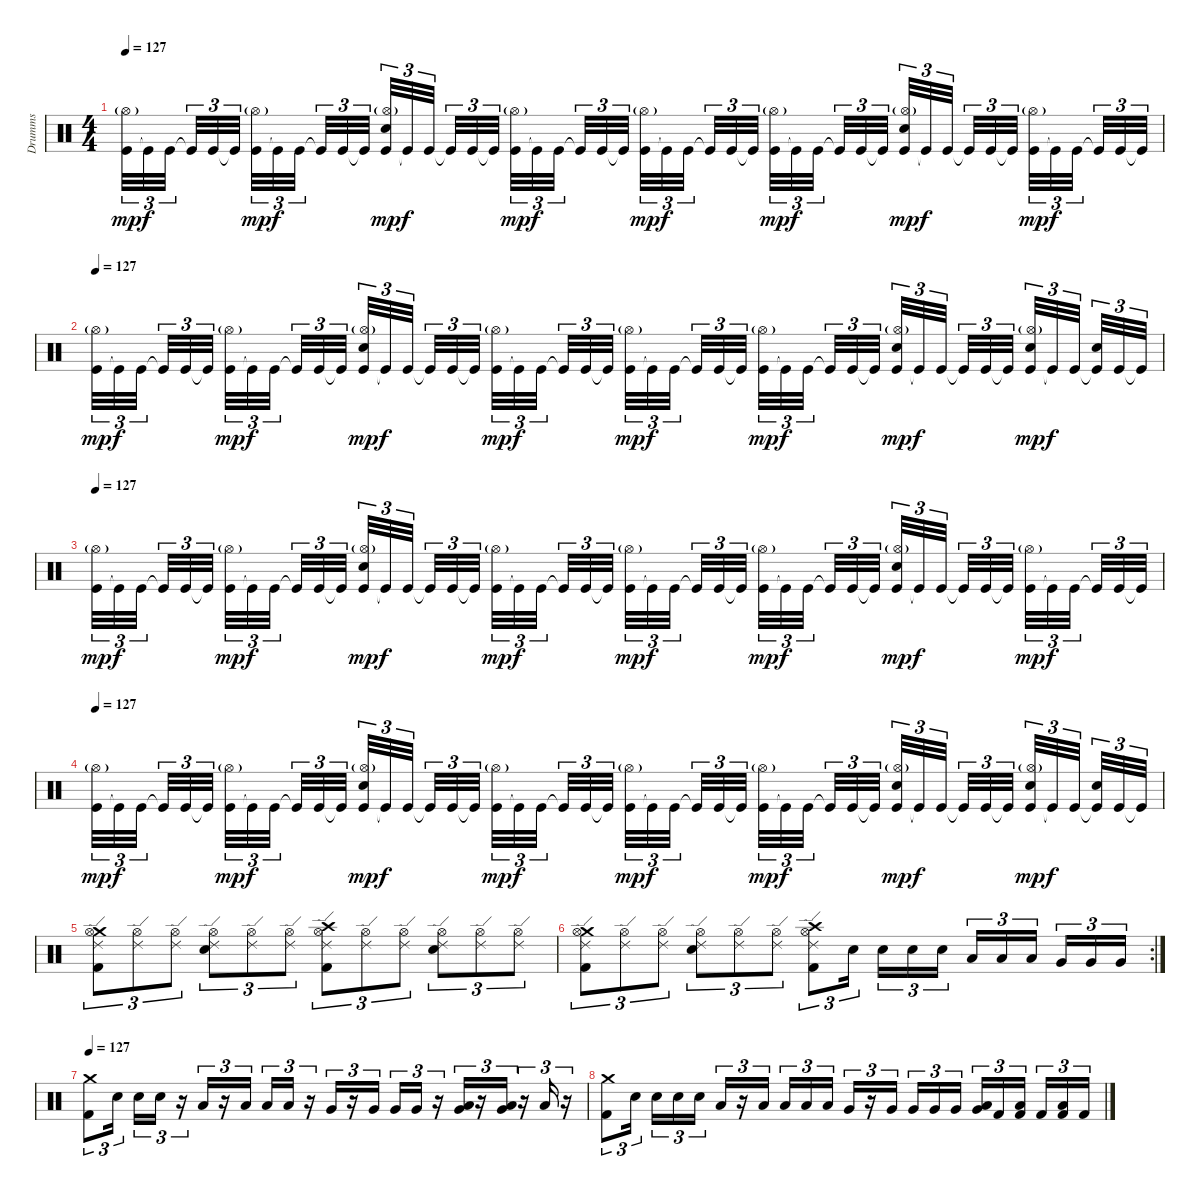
\track ("Drumms" "Drumms") {instrument percussion}
\staff {score}
\articulation defaults
\ts (4 4)
\tempo 127
\clef neutral
\ks c
("Kick (hit)" "Hi-Hat (open)"{g}).32{tu (3 2) dy mp} "Kick (hit)"{t}.32{tu (3 2) dy f} "Kick (hit)".32{tu (3 2)} "Kick (hit)"{t}.32{tu (3 2)} "Kick (hit)".32{tu (3 2)} "Kick (hit)"{t}.32{tu (3 2)} ("Kick (hit)" "Hi-Hat (open)"{g}).32{tu (3 2) dy mp} "Kick (hit)"{t}.32{tu (3 2) dy f} "Kick (hit)".32{tu (3 2)} "Kick (hit)"{t}.32{tu (3 2)} "Kick (hit)".32{tu (3 2)} "Kick (hit)"{t}.32{tu (3 2)} ("Kick (hit)" "Snare (hit) 2" "Hi-Hat (open)"{g}).32{tu (3 2) dy mp} "Kick (hit)"{t}.32{tu (3 2) dy f} "Kick (hit)".32{tu (3 2)} "Kick (hit)"{t}.32{tu (3 2)} "Kick (hit)".32{tu (3 2)} "Kick (hit)"{t}.32{tu (3 2)} ("Kick (hit)" "Hi-Hat (open)"{g}).32{tu (3 2) dy mp} "Kick (hit)"{t}.32{tu (3 2) dy f} "Kick (hit)".32{tu (3 2)} "Kick (hit)"{t}.32{tu (3 2)} "Kick (hit)".32{tu (3 2)} "Kick (hit)"{t}.32{tu (3 2)} ("Kick (hit)" "Hi-Hat (open)"{g}).32{tu (3 2) dy mp} "Kick (hit)"{t}.32{tu (3 2) dy f} "Kick (hit)".32{tu (3 2)} "Kick (hit)"{t}.32{tu (3 2)} "Kick (hit)".32{tu (3 2)} "Kick (hit)"{t}.32{tu (3 2)} ("Kick (hit)" "Hi-Hat (open)"{g}).32{tu (3 2) dy mp} "Kick (hit)"{t}.32{tu (3 2) dy f} "Kick (hit)".32{tu (3 2)} "Kick (hit)"{t}.32{tu (3 2)} "Kick (hit)".32{tu (3 2)} "Kick (hit)"{t}.32{tu (3 2)} ("Kick (hit)" "Hi-Hat (open)"{g} "Snare (hit) 2").32{tu (3 2) dy mp} "Kick (hit)"{t}.32{tu (3 2) dy f} "Kick (hit)".32{tu (3 2)} "Kick (hit)"{t}.32{tu (3 2)} "Kick (hit)".32{tu (3 2)} "Kick (hit)"{t}.32{tu (3 2)} ("Kick (hit)" "Hi-Hat (open)"{g}).32{tu (3 2) dy mp} "Kick (hit)"{t}.32{tu (3 2) dy f} "Kick (hit)".32{tu (3 2)} "Kick (hit)"{t}.32{tu (3 2)} "Kick (hit)".32{tu (3 2)} "Kick (hit)"{t}.32{tu (3 2)} |
\tempo 127
("Kick (hit)" "Hi-Hat (open)"{g}).32{tu (3 2) dy mp} "Kick (hit)"{t}.32{tu (3 2) dy f} "Kick (hit)".32{tu (3 2)} "Kick (hit)"{t}.32{tu (3 2)} "Kick (hit)".32{tu (3 2)} "Kick (hit)"{t}.32{tu (3 2)} ("Kick (hit)" "Hi-Hat (open)"{g}).32{tu (3 2) dy mp} "Kick (hit)"{t}.32{tu (3 2) dy f} "Kick (hit)".32{tu (3 2)} "Kick (hit)"{t}.32{tu (3 2)} "Kick (hit)".32{tu (3 2)} "Kick (hit)"{t}.32{tu (3 2)} ("Kick (hit)" "Snare (hit) 2" "Hi-Hat (open)"{g}).32{tu (3 2) dy mp} "Kick (hit)"{t}.32{tu (3 2) dy f} "Kick (hit)".32{tu (3 2)} "Kick (hit)"{t}.32{tu (3 2)} "Kick (hit)".32{tu (3 2)} "Kick (hit)"{t}.32{tu (3 2)} ("Kick (hit)" "Hi-Hat (open)"{g}).32{tu (3 2) dy mp} "Kick (hit)"{t}.32{tu (3 2) dy f} "Kick (hit)".32{tu (3 2)} "Kick (hit)"{t}.32{tu (3 2)} "Kick (hit)".32{tu (3 2)} "Kick (hit)"{t}.32{tu (3 2)} ("Kick (hit)" "Hi-Hat (open)"{g}).32{tu (3 2) dy mp} "Kick (hit)"{t}.32{tu (3 2) dy f} "Kick (hit)".32{tu (3 2)} "Kick (hit)"{t}.32{tu (3 2)} "Kick (hit)".32{tu (3 2)} "Kick (hit)"{t}.32{tu (3 2)} ("Kick (hit)" "Hi-Hat (open)"{g}).32{tu (3 2) dy mp} "Kick (hit)"{t}.32{tu (3 2) dy f} "Kick (hit)".32{tu (3 2)} "Kick (hit)"{t}.32{tu (3 2)} "Kick (hit)".32{tu (3 2)} "Kick (hit)"{t}.32{tu (3 2)} ("Kick (hit)" "Hi-Hat (open)"{g} "Snare (hit) 2").32{tu (3 2) dy mp} "Kick (hit)"{t}.32{tu (3 2) dy f} "Kick (hit)".32{tu (3 2)} "Kick (hit)"{t}.32{tu (3 2)} "Kick (hit)".32{tu (3 2)} "Kick (hit)"{t}.32{tu (3 2)} ("Kick (hit)" "Hi-Hat (open)"{g} "Snare (hit) 2").32{tu (3 2) dy mp} "Kick (hit)"{t}.32{tu (3 2) dy f} "Kick (hit)".32{tu (3 2)} ("Kick (hit)"{t} "Snare (hit) 2").32{tu (3 2)} "Kick (hit)".32{tu (3 2)} "Kick (hit)"{t}.32{tu (3 2)} |
\tempo 127
("Kick (hit)" "Hi-Hat (open)"{g}).32{tu (3 2) dy mp} "Kick (hit)"{t}.32{tu (3 2) dy f} "Kick (hit)".32{tu (3 2)} "Kick (hit)"{t}.32{tu (3 2)} "Kick (hit)".32{tu (3 2)} "Kick (hit)"{t}.32{tu (3 2)} ("Kick (hit)" "Hi-Hat (open)"{g}).32{tu (3 2) dy mp} "Kick (hit)"{t}.32{tu (3 2) dy f} "Kick (hit)".32{tu (3 2)} "Kick (hit)"{t}.32{tu (3 2)} "Kick (hit)".32{tu (3 2)} "Kick (hit)"{t}.32{tu (3 2)} ("Kick (hit)" "Snare (hit) 2" "Hi-Hat (open)"{g}).32{tu (3 2) dy mp} "Kick (hit)"{t}.32{tu (3 2) dy f} "Kick (hit)".32{tu (3 2)} "Kick (hit)"{t}.32{tu (3 2)} "Kick (hit)".32{tu (3 2)} "Kick (hit)"{t}.32{tu (3 2)} ("Kick (hit)" "Hi-Hat (open)"{g}).32{tu (3 2) dy mp} "Kick (hit)"{t}.32{tu (3 2) dy f} "Kick (hit)".32{tu (3 2)} "Kick (hit)"{t}.32{tu (3 2)} "Kick (hit)".32{tu (3 2)} "Kick (hit)"{t}.32{tu (3 2)} ("Kick (hit)" "Hi-Hat (open)"{g}).32{tu (3 2) dy mp} "Kick (hit)"{t}.32{tu (3 2) dy f} "Kick (hit)".32{tu (3 2)} "Kick (hit)"{t}.32{tu (3 2)} "Kick (hit)".32{tu (3 2)} "Kick (hit)"{t}.32{tu (3 2)} ("Kick (hit)" "Hi-Hat (open)"{g}).32{tu (3 2) dy mp} "Kick (hit)"{t}.32{tu (3 2) dy f} "Kick (hit)".32{tu (3 2)} "Kick (hit)"{t}.32{tu (3 2)} "Kick (hit)".32{tu (3 2)} "Kick (hit)"{t}.32{tu (3 2)} ("Kick (hit)" "Hi-Hat (open)"{g} "Snare (hit) 2").32{tu (3 2) dy mp} "Kick (hit)"{t}.32{tu (3 2) dy f} "Kick (hit)".32{tu (3 2)} "Kick (hit)"{t}.32{tu (3 2)} "Kick (hit)".32{tu (3 2)} "Kick (hit)"{t}.32{tu (3 2)} ("Kick (hit)" "Hi-Hat (open)"{g}).32{tu (3 2) dy mp} "Kick (hit)"{t}.32{tu (3 2) dy f} "Kick (hit)".32{tu (3 2)} "Kick (hit)"{t}.32{tu (3 2)} "Kick (hit)".32{tu (3 2)} "Kick (hit)"{t}.32{tu (3 2)} |
\tempo 127
("Kick (hit)" "Hi-Hat (open)"{g}).32{tu (3 2) dy mp} "Kick (hit)"{t}.32{tu (3 2) dy f} "Kick (hit)".32{tu (3 2)} "Kick (hit)"{t}.32{tu (3 2)} "Kick (hit)".32{tu (3 2)} "Kick (hit)"{t}.32{tu (3 2)} ("Kick (hit)" "Hi-Hat (open)"{g}).32{tu (3 2) dy mp} "Kick (hit)"{t}.32{tu (3 2) dy f} "Kick (hit)".32{tu (3 2)} "Kick (hit)"{t}.32{tu (3 2)} "Kick (hit)".32{tu (3 2)} "Kick (hit)"{t}.32{tu (3 2)} ("Kick (hit)" "Snare (hit) 2" "Hi-Hat (open)"{g}).32{tu (3 2) dy mp} "Kick (hit)"{t}.32{tu (3 2) dy f} "Kick (hit)".32{tu (3 2)} "Kick (hit)"{t}.32{tu (3 2)} "Kick (hit)".32{tu (3 2)} "Kick (hit)"{t}.32{tu (3 2)} ("Kick (hit)" "Hi-Hat (open)"{g}).32{tu (3 2) dy mp} "Kick (hit)"{t}.32{tu (3 2) dy f} "Kick (hit)".32{tu (3 2)} "Kick (hit)"{t}.32{tu (3 2)} "Kick (hit)".32{tu (3 2)} "Kick (hit)"{t}.32{tu (3 2)} ("Kick (hit)" "Hi-Hat (open)"{g}).32{tu (3 2) dy mp} "Kick (hit)"{t}.32{tu (3 2) dy f} "Kick (hit)".32{tu (3 2)} "Kick (hit)"{t}.32{tu (3 2)} "Kick (hit)".32{tu (3 2)} "Kick (hit)"{t}.32{tu (3 2)} ("Kick (hit)" "Hi-Hat (open)"{g}).32{tu (3 2) dy mp} "Kick (hit)"{t}.32{tu (3 2) dy f} "Kick (hit)".32{tu (3 2)} "Kick (hit)"{t}.32{tu (3 2)} "Kick (hit)".32{tu (3 2)} "Kick (hit)"{t}.32{tu (3 2)} ("Kick (hit)" "Hi-Hat (open)"{g} "Snare (hit) 2").32{tu (3 2) dy mp} "Kick (hit)"{t}.32{tu (3 2) dy f} "Kick (hit)".32{tu (3 2)} "Kick (hit)"{t}.32{tu (3 2)} "Kick (hit)".32{tu (3 2)} "Kick (hit)"{t}.32{tu (3 2)} ("Kick (hit)" "Hi-Hat (open)"{g} "Snare (hit) 2").32{tu (3 2) dy mp} "Kick (hit)"{t}.32{tu (3 2) dy f} "Kick (hit)".32{tu (3 2)} ("Kick (hit)"{t} "Snare (hit) 2").32{tu (3 2)} "Kick (hit)".32{tu (3 2)} "Kick (hit)"{t}.32{tu (3 2)} |
("Kick (hit) 2" "Ride (edge) 2" "Crash medium (hit)" "Hi-Hat (open)").8{tu (3 2)} ("Ride (edge) 2" "Hi-Hat (open)").8{tu (3 2)} ("Ride (edge) 2" "Hi-Hat (open)").8{tu (3 2)} ("Snare (hit) 2" "Ride (edge) 2" "Hi-Hat (open)").8{tu (3 2)} ("Ride (edge) 2" "Hi-Hat (open)").8{tu (3 2)} ("Ride (edge) 2" "Hi-Hat (open)").8{tu (3 2)} ("Kick (hit) 2" "Ride (edge) 2" "Crash high (hit)" "Hi-Hat (open)").8{tu (3 2)} ("Ride (edge) 2" "Hi-Hat (open)").8{tu (3 2)} ("Ride (edge) 2" "Hi-Hat (open)").8{tu (3 2)} ("Snare (hit) 2" "Ride (edge) 2" "Hi-Hat (open)").8{tu (3 2)} ("Ride (edge) 2" "Hi-Hat (open)").8{tu (3 2)} ("Ride (edge) 2" "Hi-Hat (open)").8{tu (3 2)} |
\rc 2
("Kick (hit) 2" "Ride (edge) 2" "Crash medium (hit)" "Hi-Hat (open)").8{tu (3 2)} ("Ride (edge) 2" "Hi-Hat (open)").8{tu (3 2)} ("Ride (edge) 2" "Hi-Hat (open)").8{tu (3 2)} ("Snare (hit) 2" "Ride (edge) 2" "Hi-Hat (open)").8{tu (3 2)} ("Ride (edge) 2" "Hi-Hat (open)").8{tu (3 2)} ("Ride (edge) 2" "Hi-Hat (open)").8{tu (3 2)} ("Kick (hit) 2" "Ride (edge) 2" "Crash high (hit)" "Hi-Hat (open)").8{tu (3 2)} "Snare (hit) 2".16{tu (3 2)} "Snare (hit) 2".16{tu (3 2)} "Snare (hit) 2".16{tu (3 2)} "Snare (hit) 2".16{tu (3 2)} "Low Tom (hit)".16{tu (3 2)} "Low Tom (hit)".16{tu (3 2)} "Low Tom (hit)".16{tu (3 2)} "Very Low Tom (hit)".16{tu (3 2)} "Very Low Tom (hit)".16{tu (3 2)} "Very Low Tom (hit)".16{tu (3 2)} |
\tempo 127
("Kick (hit) 2" "Crash medium (hit)").8{tu (3 2)} "Snare (hit) 2".16{tu (3 2)} "Snare (hit) 2".16{tu (3 2)} "Snare (hit) 2".16{tu (3 2)} r.16{tu (3 2)} "Low Tom (hit)".16{tu (3 2)} r.16{tu (3 2)} "Low Tom (hit)".16{tu (3 2)} "Low Tom (hit)".16{tu (3 2)} "Low Tom (hit)".16{tu (3 2)} r.16{tu (3 2)} "Very Low Tom (hit)".16{tu (3 2)} r.16{tu (3 2)} "Very Low Tom (hit)".16{tu (3 2)} "Very Low Tom (hit)".16{tu (3 2)} "Very Low Tom (hit)".16{tu (3 2)} r.16{tu (3 2)} ("Low Floor Tom (hit)" "Very Low Tom (hit)").16{tu (3 2)} r.16{tu (3 2)} ("Low Floor Tom (hit)" "Very Low Tom (hit)").16{tu (3 2)} r.16{tu (3 2)} "Low Floor Tom (hit)".16{tu (3 2)} r.16{tu (3 2)} |
("Kick (hit) 2" "Crash medium (hit)").8{tu (3 2)} "Snare (hit) 2".16{tu (3 2)} "Snare (hit) 2".16{tu (3 2)} "Snare (hit) 2".16{tu (3 2)} "Snare (hit) 2".16{tu (3 2)} "Low Tom (hit)".16{tu (3 2)} r.16{tu (3 2)} "Low Tom (hit)".16{tu (3 2)} "Low Tom (hit)".16{tu (3 2)} "Low Tom (hit)".16{tu (3 2)} "Low Tom (hit)".16{tu (3 2)} "Very Low Tom (hit)".16{tu (3 2)} r.16{tu (3 2)} "Very Low Tom (hit)".16{tu (3 2)} "Very Low Tom (hit)".16{tu (3 2)} "Very Low Tom (hit)".16{tu (3 2)} "Very Low Tom (hit)".16{tu (3 2)} ("Low Floor Tom (hit)" "Very Low Tom (hit)").16{tu (3 2)} "Kick (hit) 2".16{tu (3 2)} ("Low Floor Tom (hit)" "Kick (hit) 2").16{tu (3 2)} "Kick (hit) 2".16{tu (3 2)} ("Low Floor Tom (hit)" "Kick (hit) 2").16{tu (3 2)} "Kick (hit) 2".16{tu (3 2)}
